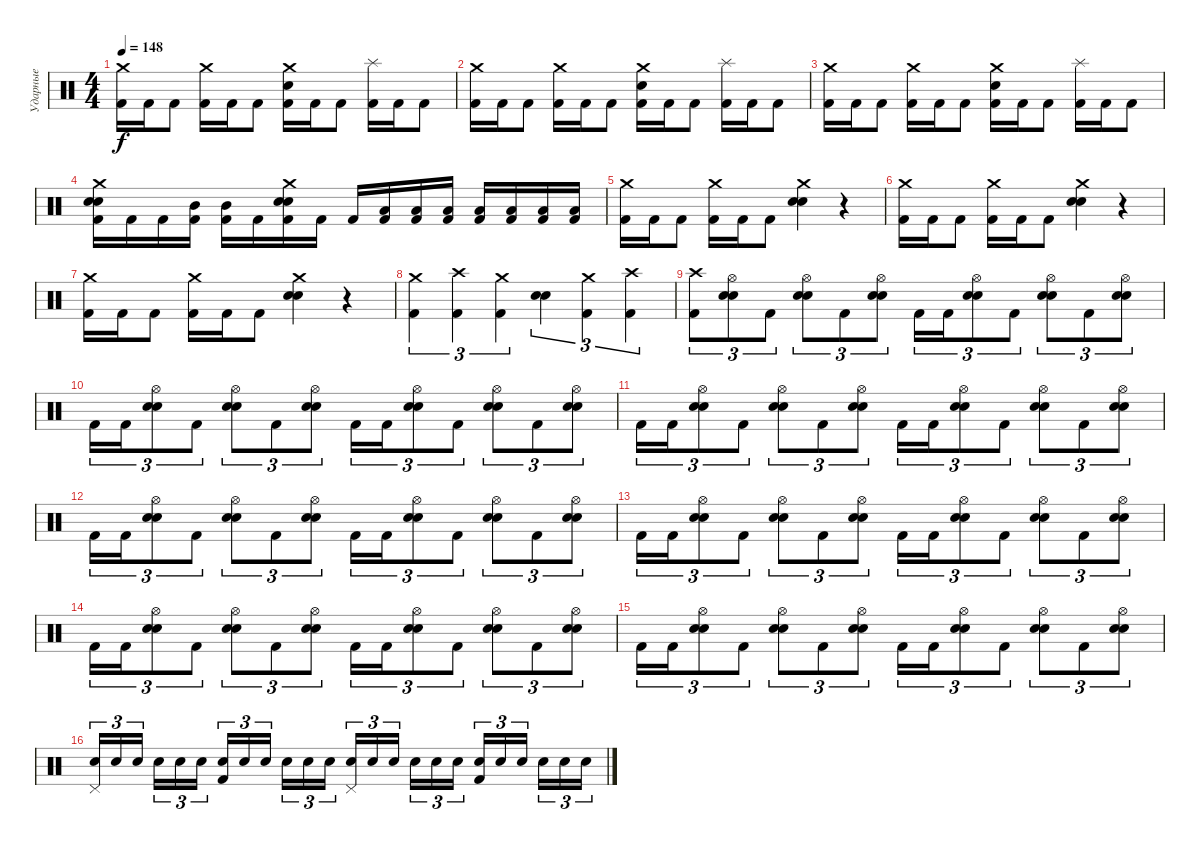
\track ("Ударные" "Ударные") {instrument percussion}
\staff {score}
\articulation defaults
\ts (4 4)
\tempo 148
\clef neutral
\ks c
("Crash medium (hit)" "Kick (hit) 2").16{dy f} "Kick (hit) 2".16 "Kick (hit) 2".8 ("Crash medium (hit)" "Kick (hit) 2").16 "Kick (hit) 2".16 "Kick (hit) 2".8 ("Crash medium (hit)" "Electric Snare (hit)" "Kick (hit) 2").16 "Kick (hit) 2".16 "Kick (hit) 2".8 ("Splash (hit)" "Kick (hit) 2").16 "Kick (hit) 2".16 "Kick (hit) 2".8 |
("Crash medium (hit)" "Kick (hit) 2").16 "Kick (hit) 2".16 "Kick (hit) 2".8 ("Crash medium (hit)" "Kick (hit) 2").16 "Kick (hit) 2".16 "Kick (hit) 2".8 ("Crash medium (hit)" "Electric Snare (hit)" "Kick (hit) 2").16 "Kick (hit) 2".16 "Kick (hit) 2".8 ("Splash (hit)" "Kick (hit) 2").16 "Kick (hit) 2".16 "Kick (hit) 2".8 |
("Crash medium (hit)" "Kick (hit) 2").16 "Kick (hit) 2".16 "Kick (hit) 2".8 ("Crash medium (hit)" "Kick (hit) 2").16 "Kick (hit) 2".16 "Kick (hit) 2".8 ("Crash medium (hit)" "Electric Snare (hit)" "Kick (hit) 2").16 "Kick (hit) 2".16 "Kick (hit) 2".8 ("Splash (hit)" "Kick (hit) 2").16 "Kick (hit) 2".16 "Kick (hit) 2".8 |
("Crash medium (hit)" "Snare (hit) 2" "Electric Snare (hit)" "Kick (hit) 2").16 "Kick (hit) 2".16 "Kick (hit) 2".16 ("Mid Tom (hit)" "Kick (hit) 2").16 ("Mid Tom (hit)" "Kick (hit) 2").16 "Kick (hit) 2".16 ("Crash medium (hit)" "Snare (hit) 2" "Electric Snare (hit)" "Kick (hit) 2").16 "Kick (hit) 2".16 "Kick (hit) 2".16 ("Low Tom (hit)" "Kick (hit) 2").16 ("Low Tom (hit)" "Kick (hit) 2").16 ("Low Tom (hit)" "Kick (hit) 2").16 ("Low Floor Tom (hit)" "Kick (hit) 2").16 ("Low Floor Tom (hit)" "Kick (hit) 2").16 ("Low Floor Tom (hit)" "Kick (hit) 2").16 ("Low Floor Tom (hit)" "Kick (hit) 2").16 |
("Crash medium (hit)" "Kick (hit) 2").16 "Kick (hit) 2".16 "Kick (hit) 2".8 ("Crash medium (hit)" "Kick (hit) 2").16 "Kick (hit) 2".16 "Kick (hit) 2".8 ("Crash medium (hit)" "Electric Snare (hit)" "Snare (hit) 2").4 r.4 |
("Crash medium (hit)" "Kick (hit) 2").16 "Kick (hit) 2".16 "Kick (hit) 2".8 ("Crash medium (hit)" "Kick (hit) 2").16 "Kick (hit) 2".16 "Kick (hit) 2".8 ("Crash medium (hit)" "Electric Snare (hit)" "Snare (hit) 2").4 r.4 |
("Crash medium (hit)" "Kick (hit) 2").16 "Kick (hit) 2".16 "Kick (hit) 2".8 ("Crash medium (hit)" "Kick (hit) 2").16 "Kick (hit) 2".16 "Kick (hit) 2".8 ("Crash medium (hit)" "Electric Snare (hit)" "Snare (hit) 2").4 r.4 |
("Crash medium (hit)" "Kick (hit) 2").4{tu (3 2)} ("Crash high (hit)" "Kick (hit) 2").4{tu (3 2)} ("Crash medium (hit)" "Kick (hit) 2").4{tu (3 2)} ("Electric Snare (hit)" "Snare (hit) 2").4{tu (3 2)} ("Crash medium (hit)" "Kick (hit) 2").4{tu (3 2)} ("Crash high (hit)" "Kick (hit) 2").4{tu (3 2)} |
("Crash high (hit)" "Kick (hit) 2").8{tu (3 2)} ("Hi-Hat (open)" "Snare (hit) 2" "Electric Snare (hit)").8{tu (3 2)} "Kick (hit) 2".8{tu (3 2)} ("Hi-Hat (open)" "Snare (hit) 2" "Electric Snare (hit)").8{tu (3 2)} "Kick (hit) 2".8{tu (3 2)} ("Hi-Hat (open)" "Snare (hit) 2" "Electric Snare (hit)").8{tu (3 2)} "Kick (hit) 2".16{tu (3 2)} "Kick (hit) 2".16{tu (3 2)} ("Hi-Hat (open)" "Snare (hit) 2" "Electric Snare (hit)").8{tu (3 2)} "Kick (hit) 2".8{tu (3 2)} ("Hi-Hat (open)" "Snare (hit) 2" "Electric Snare (hit)").8{tu (3 2)} "Kick (hit) 2".8{tu (3 2)} ("Hi-Hat (open)" "Snare (hit) 2" "Electric Snare (hit)").8{tu (3 2)} |
"Kick (hit) 2".16{tu (3 2)} "Kick (hit) 2".16{tu (3 2)} ("Hi-Hat (open)" "Snare (hit) 2" "Electric Snare (hit)").8{tu (3 2)} "Kick (hit) 2".8{tu (3 2)} ("Hi-Hat (open)" "Snare (hit) 2" "Electric Snare (hit)").8{tu (3 2)} "Kick (hit) 2".8{tu (3 2)} ("Hi-Hat (open)" "Snare (hit) 2" "Electric Snare (hit)").8{tu (3 2)} "Kick (hit) 2".16{tu (3 2)} "Kick (hit) 2".16{tu (3 2)} ("Hi-Hat (open)" "Snare (hit) 2" "Electric Snare (hit)").8{tu (3 2)} "Kick (hit) 2".8{tu (3 2)} ("Hi-Hat (open)" "Snare (hit) 2" "Electric Snare (hit)").8{tu (3 2)} "Kick (hit) 2".8{tu (3 2)} ("Hi-Hat (open)" "Snare (hit) 2" "Electric Snare (hit)").8{tu (3 2)} |
"Kick (hit) 2".16{tu (3 2)} "Kick (hit) 2".16{tu (3 2)} ("Hi-Hat (open)" "Snare (hit) 2" "Electric Snare (hit)").8{tu (3 2)} "Kick (hit) 2".8{tu (3 2)} ("Hi-Hat (open)" "Snare (hit) 2" "Electric Snare (hit)").8{tu (3 2)} "Kick (hit) 2".8{tu (3 2)} ("Hi-Hat (open)" "Snare (hit) 2" "Electric Snare (hit)").8{tu (3 2)} "Kick (hit) 2".16{tu (3 2)} "Kick (hit) 2".16{tu (3 2)} ("Hi-Hat (open)" "Snare (hit) 2" "Electric Snare (hit)").8{tu (3 2)} "Kick (hit) 2".8{tu (3 2)} ("Hi-Hat (open)" "Snare (hit) 2" "Electric Snare (hit)").8{tu (3 2)} "Kick (hit) 2".8{tu (3 2)} ("Hi-Hat (open)" "Snare (hit) 2" "Electric Snare (hit)").8{tu (3 2)} |
"Kick (hit) 2".16{tu (3 2)} "Kick (hit) 2".16{tu (3 2)} ("Hi-Hat (open)" "Snare (hit) 2" "Electric Snare (hit)").8{tu (3 2)} "Kick (hit) 2".8{tu (3 2)} ("Hi-Hat (open)" "Snare (hit) 2" "Electric Snare (hit)").8{tu (3 2)} "Kick (hit) 2".8{tu (3 2)} ("Hi-Hat (open)" "Snare (hit) 2" "Electric Snare (hit)").8{tu (3 2)} "Kick (hit) 2".16{tu (3 2)} "Kick (hit) 2".16{tu (3 2)} ("Hi-Hat (open)" "Snare (hit) 2" "Electric Snare (hit)").8{tu (3 2)} "Kick (hit) 2".8{tu (3 2)} ("Hi-Hat (open)" "Snare (hit) 2" "Electric Snare (hit)").8{tu (3 2)} "Kick (hit) 2".8{tu (3 2)} ("Hi-Hat (open)" "Snare (hit) 2" "Electric Snare (hit)").8{tu (3 2)} |
"Kick (hit) 2".16{tu (3 2)} "Kick (hit) 2".16{tu (3 2)} ("Hi-Hat (open)" "Snare (hit) 2" "Electric Snare (hit)").8{tu (3 2)} "Kick (hit) 2".8{tu (3 2)} ("Hi-Hat (open)" "Snare (hit) 2" "Electric Snare (hit)").8{tu (3 2)} "Kick (hit) 2".8{tu (3 2)} ("Hi-Hat (open)" "Snare (hit) 2" "Electric Snare (hit)").8{tu (3 2)} "Kick (hit) 2".16{tu (3 2)} "Kick (hit) 2".16{tu (3 2)} ("Hi-Hat (open)" "Snare (hit) 2" "Electric Snare (hit)").8{tu (3 2)} "Kick (hit) 2".8{tu (3 2)} ("Hi-Hat (open)" "Snare (hit) 2" "Electric Snare (hit)").8{tu (3 2)} "Kick (hit) 2".8{tu (3 2)} ("Hi-Hat (open)" "Snare (hit) 2" "Electric Snare (hit)").8{tu (3 2)} |
"Kick (hit) 2".16{tu (3 2)} "Kick (hit) 2".16{tu (3 2)} ("Hi-Hat (open)" "Snare (hit) 2" "Electric Snare (hit)").8{tu (3 2)} "Kick (hit) 2".8{tu (3 2)} ("Hi-Hat (open)" "Snare (hit) 2" "Electric Snare (hit)").8{tu (3 2)} "Kick (hit) 2".8{tu (3 2)} ("Hi-Hat (open)" "Snare (hit) 2" "Electric Snare (hit)").8{tu (3 2)} "Kick (hit) 2".16{tu (3 2)} "Kick (hit) 2".16{tu (3 2)} ("Hi-Hat (open)" "Snare (hit) 2" "Electric Snare (hit)").8{tu (3 2)} "Kick (hit) 2".8{tu (3 2)} ("Hi-Hat (open)" "Snare (hit) 2" "Electric Snare (hit)").8{tu (3 2)} "Kick (hit) 2".8{tu (3 2)} ("Hi-Hat (open)" "Snare (hit) 2" "Electric Snare (hit)").8{tu (3 2)} |
"Kick (hit) 2".16{tu (3 2)} "Kick (hit) 2".16{tu (3 2)} ("Hi-Hat (open)" "Snare (hit) 2" "Electric Snare (hit)").8{tu (3 2)} "Kick (hit) 2".8{tu (3 2)} ("Hi-Hat (open)" "Snare (hit) 2" "Electric Snare (hit)").8{tu (3 2)} "Kick (hit) 2".8{tu (3 2)} ("Hi-Hat (open)" "Snare (hit) 2" "Electric Snare (hit)").8{tu (3 2)} "Kick (hit) 2".16{tu (3 2)} "Kick (hit) 2".16{tu (3 2)} ("Hi-Hat (open)" "Snare (hit) 2" "Electric Snare (hit)").8{tu (3 2)} "Kick (hit) 2".8{tu (3 2)} ("Hi-Hat (open)" "Snare (hit) 2" "Electric Snare (hit)").8{tu (3 2)} "Kick (hit) 2".8{tu (3 2)} ("Hi-Hat (open)" "Snare (hit) 2" "Electric Snare (hit)").8{tu (3 2)} |
("Pedal Hi-Hat (hit)" "Electric Snare (hit)").16{tu (3 2)} "Electric Snare (hit)".16{tu (3 2)} "Electric Snare (hit)".16{tu (3 2) beam splitsecondary} "Electric Snare (hit)".16{tu (3 2)} "Electric Snare (hit)".16{tu (3 2)} "Electric Snare (hit)".16{tu (3 2)} ("Electric Snare (hit)" "Kick (hit) 2").16{tu (3 2)} "Electric Snare (hit)".16{tu (3 2)} "Electric Snare (hit)".16{tu (3 2) beam splitsecondary} "Electric Snare (hit)".16{tu (3 2)} "Electric Snare (hit)".16{tu (3 2)} "Electric Snare (hit)".16{tu (3 2)} ("Pedal Hi-Hat (hit)" "Electric Snare (hit)").16{tu (3 2)} "Electric Snare (hit)".16{tu (3 2)} "Electric Snare (hit)".16{tu (3 2) beam splitsecondary} "Electric Snare (hit)".16{tu (3 2)} "Electric Snare (hit)".16{tu (3 2)} "Electric Snare (hit)".16{tu (3 2)} ("Electric Snare (hit)" "Kick (hit) 2").16{tu (3 2)} "Electric Snare (hit)".16{tu (3 2)} "Electric Snare (hit)".16{tu (3 2) beam splitsecondary} "Electric Snare (hit)".16{tu (3 2)} "Electric Snare (hit)".16{tu (3 2)} "Electric Snare (hit)".16{tu (3 2)}
